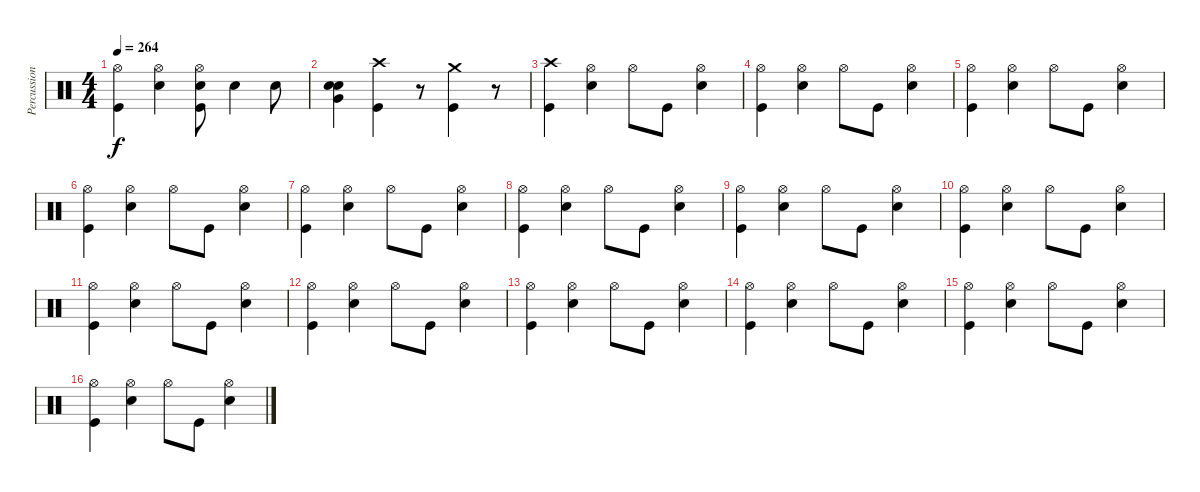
\track ("Percussion" "Percussion") {instrument percussion}
\staff {score}
\articulation defaults
\ts (4 4)
\tempo 264
\clef neutral
\ks c
("Hi-Hat (open)" "Kick (hit)").4{dy f} ("Hi-Hat (open)" "Snare (hit) 2").4 ("Hi-Hat (open)" "Snare (hit) 2" "Kick (hit)").8 "Snare (hit) 2".4 "Snare (hit) 2".8 |
("Very Low Tom (hit)" "Electric Snare (hit)" "Snare (hit) 2").4 ("Crash high (hit)" "Kick (hit)").4 r.8 ("Crash medium (hit)" "Kick (hit)").4 r.8 |
("Crash high (hit)" "Kick (hit)").4 ("Hi-Hat (open)" "Snare (hit) 2").4 "Hi-Hat (open)".8 "Kick (hit)".8 ("Hi-Hat (open)" "Snare (hit) 2").4 |
("Hi-Hat (open)" "Kick (hit)").4 ("Hi-Hat (open)" "Snare (hit) 2").4 "Hi-Hat (open)".8 "Kick (hit)".8 ("Hi-Hat (open)" "Snare (hit) 2").4 |
("Hi-Hat (open)" "Kick (hit)").4 ("Hi-Hat (open)" "Snare (hit) 2").4 "Hi-Hat (open)".8 "Kick (hit)".8 ("Hi-Hat (open)" "Snare (hit) 2").4 |
("Hi-Hat (open)" "Kick (hit)").4 ("Hi-Hat (open)" "Snare (hit) 2").4 "Hi-Hat (open)".8 "Kick (hit)".8 ("Hi-Hat (open)" "Snare (hit) 2").4 |
("Hi-Hat (open)" "Kick (hit)").4 ("Hi-Hat (open)" "Snare (hit) 2").4 "Hi-Hat (open)".8 "Kick (hit)".8 ("Hi-Hat (open)" "Snare (hit) 2").4 |
("Hi-Hat (open)" "Kick (hit)").4 ("Hi-Hat (open)" "Snare (hit) 2").4 "Hi-Hat (open)".8 "Kick (hit)".8 ("Hi-Hat (open)" "Snare (hit) 2").4 |
("Hi-Hat (open)" "Kick (hit)").4 ("Hi-Hat (open)" "Snare (hit) 2").4 "Hi-Hat (open)".8 "Kick (hit)".8 ("Hi-Hat (open)" "Snare (hit) 2").4 |
("Hi-Hat (open)" "Kick (hit)").4 ("Hi-Hat (open)" "Snare (hit) 2").4 "Hi-Hat (open)".8 "Kick (hit)".8 ("Hi-Hat (open)" "Snare (hit) 2").4 |
("Hi-Hat (open)" "Kick (hit)").4 ("Hi-Hat (open)" "Snare (hit) 2").4 "Hi-Hat (open)".8 "Kick (hit)".8 ("Hi-Hat (open)" "Snare (hit) 2").4 |
("Hi-Hat (open)" "Kick (hit)").4 ("Hi-Hat (open)" "Snare (hit) 2").4 "Hi-Hat (open)".8 "Kick (hit)".8 ("Hi-Hat (open)" "Snare (hit) 2").4 |
("Hi-Hat (open)" "Kick (hit)").4 ("Hi-Hat (open)" "Snare (hit) 2").4 "Hi-Hat (open)".8 "Kick (hit)".8 ("Hi-Hat (open)" "Snare (hit) 2").4 |
("Hi-Hat (open)" "Kick (hit)").4 ("Hi-Hat (open)" "Snare (hit) 2").4 "Hi-Hat (open)".8 "Kick (hit)".8 ("Hi-Hat (open)" "Snare (hit) 2").4 |
("Hi-Hat (open)" "Kick (hit)").4 ("Hi-Hat (open)" "Snare (hit) 2").4 "Hi-Hat (open)".8 "Kick (hit)".8 ("Hi-Hat (open)" "Snare (hit) 2").4 |
("Hi-Hat (open)" "Kick (hit)").4 ("Hi-Hat (open)" "Snare (hit) 2").4 "Hi-Hat (open)".8 "Kick (hit)".8 ("Hi-Hat (open)" "Snare (hit) 2").4
